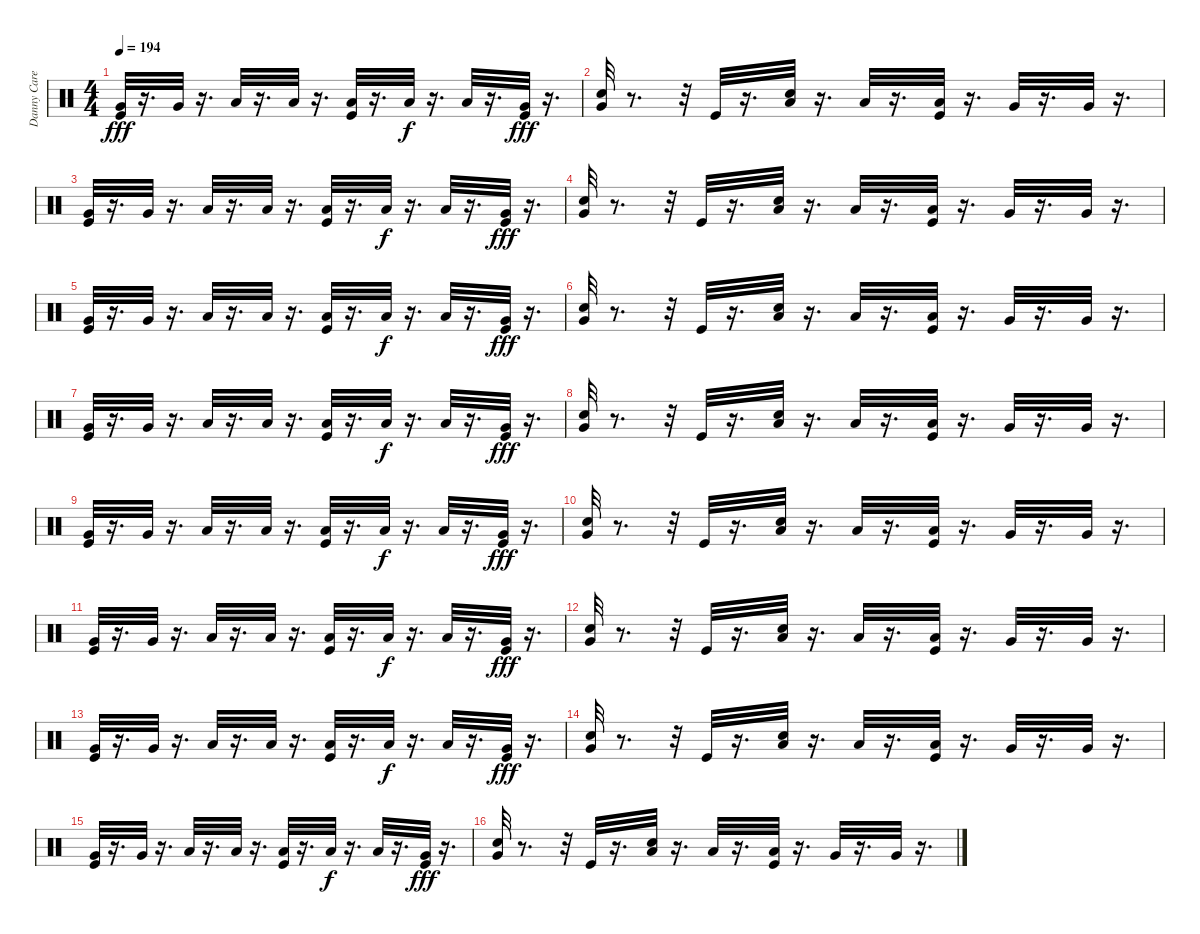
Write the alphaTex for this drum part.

\track ("Danny Carey" "Danny Care") {instrument percussion}
\staff {score}
\articulation defaults
\ts (4 4)
\tempo 194
\clef neutral
\ks c
("Very Low Tom (hit)" "Kick (hit)").32{dy fff} r.16{d} "Very Low Tom (hit)".32 r.16{d} "Low Floor Tom (hit)".32 r.16{d} "Low Floor Tom (hit)".32 r.16{d} ("Low Floor Tom (hit)" "Kick (hit)").32 r.16{d} "Low Floor Tom (hit)".32{dy f} r.16{d} "Low Floor Tom (hit)".32 r.16{d} ("Very Low Tom (hit)" "Kick (hit)").32{dy fff} r.16{d} |
("Very Low Tom (hit)" "Snare (hit) 2").32 r.8{d} r.32 "Kick (hit)".32 r.16{d} ("Low Tom (hit)" "Snare (hit) 2").32 r.16{d} "Low Tom (hit)".32 r.16{d} ("Low Tom (hit)" "Kick (hit)").32 r.16{d} "Very Low Tom (hit)".32 r.16{d} "Very Low Tom (hit)".32 r.16{d} |
("Very Low Tom (hit)" "Kick (hit)").32 r.16{d} "Very Low Tom (hit)".32 r.16{d} "Low Floor Tom (hit)".32 r.16{d} "Low Floor Tom (hit)".32 r.16{d} ("Low Floor Tom (hit)" "Kick (hit)").32 r.16{d} "Low Floor Tom (hit)".32{dy f} r.16{d} "Low Floor Tom (hit)".32 r.16{d} ("Very Low Tom (hit)" "Kick (hit)").32{dy fff} r.16{d} |
("Very Low Tom (hit)" "Snare (hit) 2").32 r.8{d} r.32 "Kick (hit)".32 r.16{d} ("Low Tom (hit)" "Snare (hit) 2").32 r.16{d} "Low Tom (hit)".32 r.16{d} ("Low Tom (hit)" "Kick (hit)").32 r.16{d} "Very Low Tom (hit)".32 r.16{d} "Very Low Tom (hit)".32 r.16{d} |
("Very Low Tom (hit)" "Kick (hit)").32 r.16{d} "Very Low Tom (hit)".32 r.16{d} "Low Floor Tom (hit)".32 r.16{d} "Low Floor Tom (hit)".32 r.16{d} ("Low Floor Tom (hit)" "Kick (hit)").32 r.16{d} "Low Floor Tom (hit)".32{dy f} r.16{d} "Low Floor Tom (hit)".32 r.16{d} ("Very Low Tom (hit)" "Kick (hit)").32{dy fff} r.16{d} |
("Very Low Tom (hit)" "Snare (hit) 2").32 r.8{d} r.32 "Kick (hit)".32 r.16{d} ("Low Tom (hit)" "Snare (hit) 2").32 r.16{d} "Low Tom (hit)".32 r.16{d} ("Low Tom (hit)" "Kick (hit)").32 r.16{d} "Very Low Tom (hit)".32 r.16{d} "Very Low Tom (hit)".32 r.16{d} |
("Very Low Tom (hit)" "Kick (hit)").32 r.16{d} "Very Low Tom (hit)".32 r.16{d} "Low Floor Tom (hit)".32 r.16{d} "Low Floor Tom (hit)".32 r.16{d} ("Low Floor Tom (hit)" "Kick (hit)").32 r.16{d} "Low Floor Tom (hit)".32{dy f} r.16{d} "Low Floor Tom (hit)".32 r.16{d} ("Very Low Tom (hit)" "Kick (hit)").32{dy fff} r.16{d} |
("Very Low Tom (hit)" "Snare (hit) 2").32 r.8{d} r.32 "Kick (hit)".32 r.16{d} ("Low Tom (hit)" "Snare (hit) 2").32 r.16{d} "Low Tom (hit)".32 r.16{d} ("Low Tom (hit)" "Kick (hit)").32 r.16{d} "Very Low Tom (hit)".32 r.16{d} "Very Low Tom (hit)".32 r.16{d} |
("Very Low Tom (hit)" "Kick (hit)").32 r.16{d} "Very Low Tom (hit)".32 r.16{d} "Low Floor Tom (hit)".32 r.16{d} "Low Floor Tom (hit)".32 r.16{d} ("Low Floor Tom (hit)" "Kick (hit)").32 r.16{d} "Low Floor Tom (hit)".32{dy f} r.16{d} "Low Floor Tom (hit)".32 r.16{d} ("Very Low Tom (hit)" "Kick (hit)").32{dy fff} r.16{d} |
("Very Low Tom (hit)" "Snare (hit) 2").32 r.8{d} r.32 "Kick (hit)".32 r.16{d} ("Low Tom (hit)" "Snare (hit) 2").32 r.16{d} "Low Tom (hit)".32 r.16{d} ("Low Tom (hit)" "Kick (hit)").32 r.16{d} "Very Low Tom (hit)".32 r.16{d} "Very Low Tom (hit)".32 r.16{d} |
("Very Low Tom (hit)" "Kick (hit)").32 r.16{d} "Very Low Tom (hit)".32 r.16{d} "Low Floor Tom (hit)".32 r.16{d} "Low Floor Tom (hit)".32 r.16{d} ("Low Floor Tom (hit)" "Kick (hit)").32 r.16{d} "Low Floor Tom (hit)".32{dy f} r.16{d} "Low Floor Tom (hit)".32 r.16{d} ("Very Low Tom (hit)" "Kick (hit)").32{dy fff} r.16{d} |
("Very Low Tom (hit)" "Snare (hit) 2").32 r.8{d} r.32 "Kick (hit)".32 r.16{d} ("Low Tom (hit)" "Snare (hit) 2").32 r.16{d} "Low Tom (hit)".32 r.16{d} ("Low Tom (hit)" "Kick (hit)").32 r.16{d} "Very Low Tom (hit)".32 r.16{d} "Very Low Tom (hit)".32 r.16{d} |
("Very Low Tom (hit)" "Kick (hit)").32 r.16{d} "Very Low Tom (hit)".32 r.16{d} "Low Floor Tom (hit)".32 r.16{d} "Low Floor Tom (hit)".32 r.16{d} ("Low Floor Tom (hit)" "Kick (hit)").32 r.16{d} "Low Floor Tom (hit)".32{dy f} r.16{d} "Low Floor Tom (hit)".32 r.16{d} ("Very Low Tom (hit)" "Kick (hit)").32{dy fff} r.16{d} |
("Very Low Tom (hit)" "Snare (hit) 2").32 r.8{d} r.32 "Kick (hit)".32 r.16{d} ("Low Tom (hit)" "Snare (hit) 2").32 r.16{d} "Low Tom (hit)".32 r.16{d} ("Low Tom (hit)" "Kick (hit)").32 r.16{d} "Very Low Tom (hit)".32 r.16{d} "Very Low Tom (hit)".32 r.16{d} |
("Very Low Tom (hit)" "Kick (hit)").32 r.16{d} "Very Low Tom (hit)".32 r.16{d} "Low Floor Tom (hit)".32 r.16{d} "Low Floor Tom (hit)".32 r.16{d} ("Low Floor Tom (hit)" "Kick (hit)").32 r.16{d} "Low Floor Tom (hit)".32{dy f} r.16{d} "Low Floor Tom (hit)".32 r.16{d} ("Very Low Tom (hit)" "Kick (hit)").32{dy fff} r.16{d} |
("Very Low Tom (hit)" "Snare (hit) 2").32 r.8{d} r.32 "Kick (hit)".32 r.16{d} ("Low Tom (hit)" "Snare (hit) 2").32 r.16{d} "Low Tom (hit)".32 r.16{d} ("Low Tom (hit)" "Kick (hit)").32 r.16{d} "Very Low Tom (hit)".32 r.16{d} "Very Low Tom (hit)".32 r.16{d}
